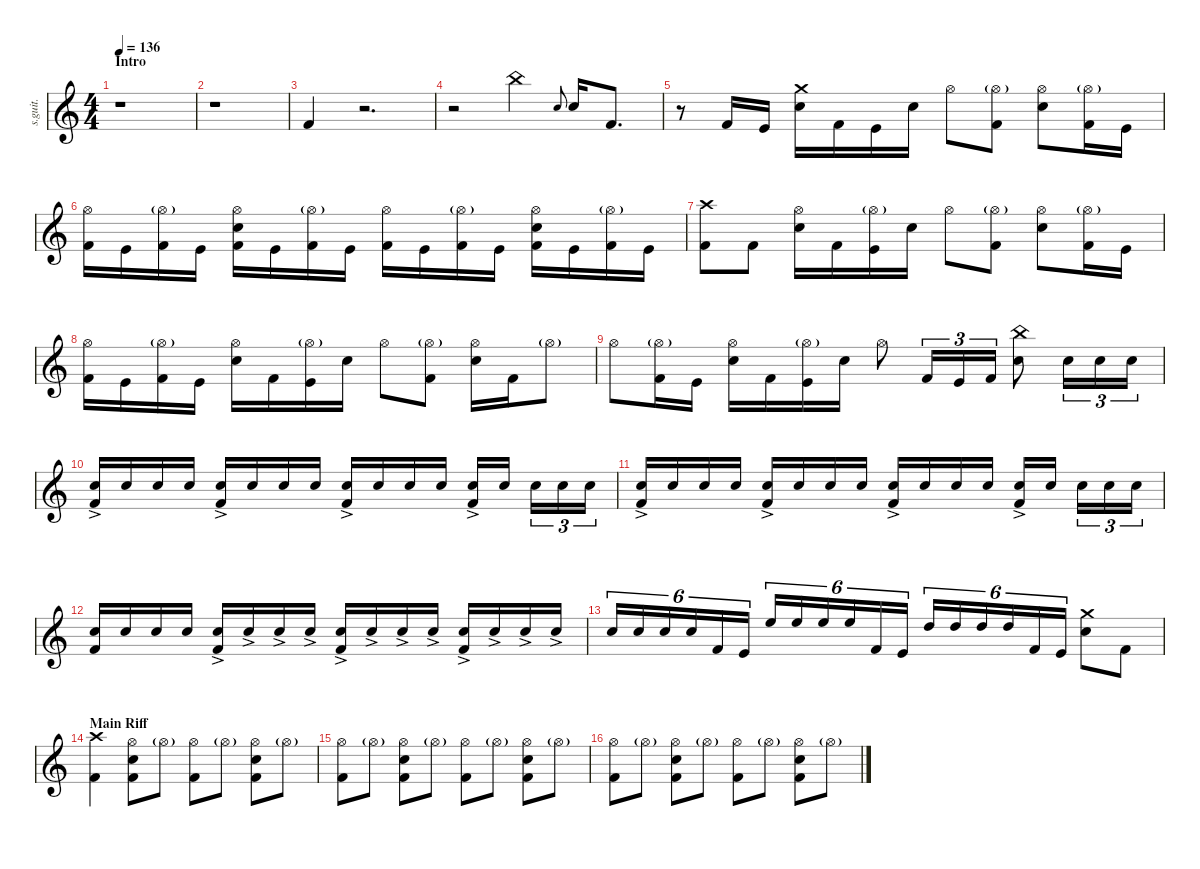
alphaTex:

\defaultSystemsLayout 4
\hideDynamics
\bracketExtendMode nobrackets
\track ("Joey Jordison" "s.guit.") {instrument percussion}
\staff {score}
\articulation defaults
\ts (4 4)
\beaming (8 2 2 2 2)
\section ("" "Intro")
\tempo 136
\clef g2
\ks c
r.1{dy fff} |
r.1 |
"Kick (hit) 2".4{lyrics (0 "") lyrics (1 "") lyrics (2 "") lyrics (3 "") lyrics (4 "")} r.2{d} |
r.2 "China (hit)".4{lyrics (0 "") lyrics (1 "") lyrics (2 "") lyrics (3 "") lyrics (4 "")} "Snare (hit) 2".8{lyrics (0 "") lyrics (1 "") lyrics (2 "") lyrics (3 "") lyrics (4 "") gr onbeat} "Snare (hit) 2".16{lyrics (0 "") lyrics (1 "") lyrics (2 "") lyrics (3 "") lyrics (4 "")} "Kick (hit) 2".8{d lyrics (0 "") lyrics (1 "") lyrics (2 "") lyrics (3 "") lyrics (4 "")} |
r.8 "Kick (hit) 2".16{lyrics (0 "") lyrics (1 "") lyrics (2 "") lyrics (3 "") lyrics (4 "")} "Kick (hit)".16{lyrics (0 "") lyrics (1 "") lyrics (2 "") lyrics (3 "") lyrics (4 "") dy mf} ("Snare (hit) 2" "Crash medium (hit)").16{lyrics (0 "") lyrics (1 "") lyrics (2 "") lyrics (3 "") lyrics (4 "") dy fff} "Kick (hit) 2".16{lyrics (0 "") lyrics (1 "") lyrics (2 "") lyrics (3 "") lyrics (4 "")} "Kick (hit)".16{lyrics (0 "") lyrics (1 "") lyrics (2 "") lyrics (3 "") lyrics (4 "")} "Snare (hit) 2".16{lyrics (0 "") lyrics (1 "") lyrics (2 "") lyrics (3 "") lyrics (4 "")} "Hi-Hat (open)".8{lyrics (0 "") lyrics (1 "") lyrics (2 "") lyrics (3 "") lyrics (4 "")} ("Kick (hit) 2" "Hi-Hat (open)"{g}).8{lyrics (0 "") lyrics (1 "") lyrics (2 "") lyrics (3 "") lyrics (4 "")} ("Snare (hit) 2" "Hi-Hat (open)").8{lyrics (0 "") lyrics (1 "") lyrics (2 "") lyrics (3 "") lyrics (4 "")} ("Kick (hit) 2" "Hi-Hat (open)"{g}).16{lyrics (0 "") lyrics (1 "") lyrics (2 "") lyrics (3 "") lyrics (4 "")} "Kick (hit)".16{lyrics (0 "") lyrics (1 "") lyrics (2 "") lyrics (3 "") lyrics (4 "")} |
("Kick (hit) 2" "Hi-Hat (open)").16{lyrics (0 "") lyrics (1 "") lyrics (2 "") lyrics (3 "") lyrics (4 "")} "Kick (hit)".16{lyrics (0 "") lyrics (1 "") lyrics (2 "") lyrics (3 "") lyrics (4 "")} ("Kick (hit) 2" "Hi-Hat (open)"{g}).16{lyrics (0 "") lyrics (1 "") lyrics (2 "") lyrics (3 "") lyrics (4 "")} "Kick (hit)".16{lyrics (0 "") lyrics (1 "") lyrics (2 "") lyrics (3 "") lyrics (4 "")} ("Kick (hit) 2" "Hi-Hat (open)" "Snare (hit) 2").16{lyrics (0 "") lyrics (1 "") lyrics (2 "") lyrics (3 "") lyrics (4 "")} "Kick (hit)".16{lyrics (0 "") lyrics (1 "") lyrics (2 "") lyrics (3 "") lyrics (4 "")} ("Hi-Hat (open)"{g} "Kick (hit) 2").16{lyrics (0 "") lyrics (1 "") lyrics (2 "") lyrics (3 "") lyrics (4 "")} "Kick (hit)".16{lyrics (0 "") lyrics (1 "") lyrics (2 "") lyrics (3 "") lyrics (4 "")} ("Kick (hit) 2" "Hi-Hat (open)").16{lyrics (0 "") lyrics (1 "") lyrics (2 "") lyrics (3 "") lyrics (4 "")} "Kick (hit)".16{lyrics (0 "") lyrics (1 "") lyrics (2 "") lyrics (3 "") lyrics (4 "")} ("Kick (hit) 2" "Hi-Hat (open)"{g}).16{lyrics (0 "") lyrics (1 "") lyrics (2 "") lyrics (3 "") lyrics (4 "")} "Kick (hit)".16{lyrics (0 "") lyrics (1 "") lyrics (2 "") lyrics (3 "") lyrics (4 "")} ("Kick (hit) 2" "Hi-Hat (open)" "Snare (hit) 2").16{lyrics (0 "") lyrics (1 "") lyrics (2 "") lyrics (3 "") lyrics (4 "")} "Kick (hit)".16{lyrics (0 "") lyrics (1 "") lyrics (2 "") lyrics (3 "") lyrics (4 "")} ("Kick (hit) 2" "Hi-Hat (open)"{g}).16{lyrics (0 "") lyrics (1 "") lyrics (2 "") lyrics (3 "") lyrics (4 "")} "Kick (hit)".16{lyrics (0 "") lyrics (1 "") lyrics (2 "") lyrics (3 "") lyrics (4 "")} |
("Kick (hit) 2" "Crash high (hit)").8{lyrics (0 "") lyrics (1 "") lyrics (2 "") lyrics (3 "") lyrics (4 "")} "Kick (hit) 2".8{lyrics (0 "") lyrics (1 "") lyrics (2 "") lyrics (3 "") lyrics (4 "")} ("Snare (hit) 2" "Hi-Hat (open)").16{lyrics (0 "") lyrics (1 "") lyrics (2 "") lyrics (3 "") lyrics (4 "")} "Kick (hit) 2".16{lyrics (0 "") lyrics (1 "") lyrics (2 "") lyrics (3 "") lyrics (4 "")} ("Hi-Hat (open)"{g} "Kick (hit)").16{lyrics (0 "") lyrics (1 "") lyrics (2 "") lyrics (3 "") lyrics (4 "")} "Snare (hit) 2".16{lyrics (0 "") lyrics (1 "") lyrics (2 "") lyrics (3 "") lyrics (4 "")} "Hi-Hat (open)".8{lyrics (0 "") lyrics (1 "") lyrics (2 "") lyrics (3 "") lyrics (4 "")} ("Kick (hit) 2" "Hi-Hat (open)"{g}).8{lyrics (0 "") lyrics (1 "") lyrics (2 "") lyrics (3 "") lyrics (4 "")} ("Snare (hit) 2" "Hi-Hat (open)").8{lyrics (0 "") lyrics (1 "") lyrics (2 "") lyrics (3 "") lyrics (4 "")} ("Kick (hit) 2" "Hi-Hat (open)"{g}).16{lyrics (0 "") lyrics (1 "") lyrics (2 "") lyrics (3 "") lyrics (4 "")} "Kick (hit)".16{lyrics (0 "") lyrics (1 "") lyrics (2 "") lyrics (3 "") lyrics (4 "")} |
("Kick (hit) 2" "Hi-Hat (open)").16{lyrics (0 "") lyrics (1 "") lyrics (2 "") lyrics (3 "") lyrics (4 "")} "Kick (hit)".16{lyrics (0 "") lyrics (1 "") lyrics (2 "") lyrics (3 "") lyrics (4 "")} ("Kick (hit) 2" "Hi-Hat (open)"{g}).16{lyrics (0 "") lyrics (1 "") lyrics (2 "") lyrics (3 "") lyrics (4 "")} "Kick (hit)".16{lyrics (0 "") lyrics (1 "") lyrics (2 "") lyrics (3 "") lyrics (4 "")} ("Snare (hit) 2" "Hi-Hat (open)").16{lyrics (0 "") lyrics (1 "") lyrics (2 "") lyrics (3 "") lyrics (4 "")} "Kick (hit) 2".16{lyrics (0 "") lyrics (1 "") lyrics (2 "") lyrics (3 "") lyrics (4 "")} ("Hi-Hat (open)"{g} "Kick (hit)").16{lyrics (0 "") lyrics (1 "") lyrics (2 "") lyrics (3 "") lyrics (4 "")} "Snare (hit) 2".16{lyrics (0 "") lyrics (1 "") lyrics (2 "") lyrics (3 "") lyrics (4 "")} "Hi-Hat (open)".8{lyrics (0 "") lyrics (1 "") lyrics (2 "") lyrics (3 "") lyrics (4 "")} ("Kick (hit) 2" "Hi-Hat (open)"{g}).8{lyrics (0 "") lyrics (1 "") lyrics (2 "") lyrics (3 "") lyrics (4 "")} ("Snare (hit) 2" "Hi-Hat (open)").16{lyrics (0 "") lyrics (1 "") lyrics (2 "") lyrics (3 "") lyrics (4 "")} "Kick (hit) 2".16{lyrics (0 "") lyrics (1 "") lyrics (2 "") lyrics (3 "") lyrics (4 "")} "Hi-Hat (open)"{g}.8{lyrics (0 "") lyrics (1 "") lyrics (2 "") lyrics (3 "") lyrics (4 "")} |
"Hi-Hat (open)".8{lyrics (0 "") lyrics (1 "") lyrics (2 "") lyrics (3 "") lyrics (4 "")} ("Kick (hit) 2" "Hi-Hat (open)"{g}).16{lyrics (0 "") lyrics (1 "") lyrics (2 "") lyrics (3 "") lyrics (4 "")} "Kick (hit)".16{lyrics (0 "") lyrics (1 "") lyrics (2 "") lyrics (3 "") lyrics (4 "")} ("Snare (hit) 2" "Hi-Hat (open)").16{lyrics (0 "") lyrics (1 "") lyrics (2 "") lyrics (3 "") lyrics (4 "")} "Kick (hit) 2".16{lyrics (0 "") lyrics (1 "") lyrics (2 "") lyrics (3 "") lyrics (4 "")} ("Hi-Hat (open)"{g} "Kick (hit)").16{lyrics (0 "") lyrics (1 "") lyrics (2 "") lyrics (3 "") lyrics (4 "")} "Snare (hit) 2".16{lyrics (0 "") lyrics (1 "") lyrics (2 "") lyrics (3 "") lyrics (4 "")} "Hi-Hat (open)".8{lyrics (0 "") lyrics (1 "") lyrics (2 "") lyrics (3 "") lyrics (4 "")} "Kick (hit) 2".16{tu (3 2) lyrics (0 "") lyrics (1 "") lyrics (2 "") lyrics (3 "") lyrics (4 "")} "Kick (hit)".16{tu (3 2) lyrics (0 "") lyrics (1 "") lyrics (2 "") lyrics (3 "") lyrics (4 "")} "Kick (hit) 2".16{tu (3 2) lyrics (0 "") lyrics (1 "") lyrics (2 "") lyrics (3 "") lyrics (4 "")} ("Snare (hit) 2" "China (hit)").8{lyrics (0 "") lyrics (1 "") lyrics (2 "") lyrics (3 "") lyrics (4 "")} "Snare (hit) 2".16{tu (3 2) lyrics (0 "") lyrics (1 "") lyrics (2 "") lyrics (3 "") lyrics (4 "") dy f} "Snare (hit) 2".16{tu (3 2) lyrics (0 "") lyrics (1 "") lyrics (2 "") lyrics (3 "") lyrics (4 "")} "Snare (hit) 2".16{tu (3 2) lyrics (0 "") lyrics (1 "") lyrics (2 "") lyrics (3 "") lyrics (4 "")} |
("Snare (hit) 2"{ac} "Kick (hit) 2").16{lyrics (0 "") lyrics (1 "") lyrics (2 "") lyrics (3 "") lyrics (4 "")} "Snare (hit) 2".16{lyrics (0 "") lyrics (1 "") lyrics (2 "") lyrics (3 "") lyrics (4 "")} "Snare (hit) 2".16{lyrics (0 "") lyrics (1 "") lyrics (2 "") lyrics (3 "") lyrics (4 "")} "Snare (hit) 2".16{lyrics (0 "") lyrics (1 "") lyrics (2 "") lyrics (3 "") lyrics (4 "")} ("Snare (hit) 2"{ac} "Kick (hit) 2").16{lyrics (0 "") lyrics (1 "") lyrics (2 "") lyrics (3 "") lyrics (4 "")} "Snare (hit) 2".16{lyrics (0 "") lyrics (1 "") lyrics (2 "") lyrics (3 "") lyrics (4 "")} "Snare (hit) 2".16{lyrics (0 "") lyrics (1 "") lyrics (2 "") lyrics (3 "") lyrics (4 "")} "Snare (hit) 2".16{lyrics (0 "") lyrics (1 "") lyrics (2 "") lyrics (3 "") lyrics (4 "")} ("Snare (hit) 2"{ac} "Kick (hit) 2").16{lyrics (0 "") lyrics (1 "") lyrics (2 "") lyrics (3 "") lyrics (4 "")} "Snare (hit) 2".16{lyrics (0 "") lyrics (1 "") lyrics (2 "") lyrics (3 "") lyrics (4 "")} "Snare (hit) 2".16{lyrics (0 "") lyrics (1 "") lyrics (2 "") lyrics (3 "") lyrics (4 "")} "Snare (hit) 2".16{lyrics (0 "") lyrics (1 "") lyrics (2 "") lyrics (3 "") lyrics (4 "")} ("Snare (hit) 2"{ac} "Kick (hit) 2").16{lyrics (0 "") lyrics (1 "") lyrics (2 "") lyrics (3 "") lyrics (4 "")} "Snare (hit) 2".16{lyrics (0 "") lyrics (1 "") lyrics (2 "") lyrics (3 "") lyrics (4 "")} "Snare (hit) 2".16{tu (3 2) lyrics (0 "") lyrics (1 "") lyrics (2 "") lyrics (3 "") lyrics (4 "")} "Snare (hit) 2".16{tu (3 2) lyrics (0 "") lyrics (1 "") lyrics (2 "") lyrics (3 "") lyrics (4 "")} "Snare (hit) 2".16{tu (3 2) lyrics (0 "") lyrics (1 "") lyrics (2 "") lyrics (3 "") lyrics (4 "")} |
("Snare (hit) 2"{ac} "Kick (hit) 2").16{lyrics (0 "") lyrics (1 "") lyrics (2 "") lyrics (3 "") lyrics (4 "")} "Snare (hit) 2".16{lyrics (0 "") lyrics (1 "") lyrics (2 "") lyrics (3 "") lyrics (4 "")} "Snare (hit) 2".16{lyrics (0 "") lyrics (1 "") lyrics (2 "") lyrics (3 "") lyrics (4 "")} "Snare (hit) 2".16{lyrics (0 "") lyrics (1 "") lyrics (2 "") lyrics (3 "") lyrics (4 "")} ("Snare (hit) 2"{ac} "Kick (hit) 2").16{lyrics (0 "") lyrics (1 "") lyrics (2 "") lyrics (3 "") lyrics (4 "")} "Snare (hit) 2".16{lyrics (0 "") lyrics (1 "") lyrics (2 "") lyrics (3 "") lyrics (4 "")} "Snare (hit) 2".16{lyrics (0 "") lyrics (1 "") lyrics (2 "") lyrics (3 "") lyrics (4 "")} "Snare (hit) 2".16{lyrics (0 "") lyrics (1 "") lyrics (2 "") lyrics (3 "") lyrics (4 "")} ("Snare (hit) 2"{ac} "Kick (hit) 2").16{lyrics (0 "") lyrics (1 "") lyrics (2 "") lyrics (3 "") lyrics (4 "")} "Snare (hit) 2".16{lyrics (0 "") lyrics (1 "") lyrics (2 "") lyrics (3 "") lyrics (4 "")} "Snare (hit) 2".16{lyrics (0 "") lyrics (1 "") lyrics (2 "") lyrics (3 "") lyrics (4 "")} "Snare (hit) 2".16{lyrics (0 "") lyrics (1 "") lyrics (2 "") lyrics (3 "") lyrics (4 "")} ("Snare (hit) 2"{ac} "Kick (hit) 2").16{lyrics (0 "") lyrics (1 "") lyrics (2 "") lyrics (3 "") lyrics (4 "")} "Snare (hit) 2".16{lyrics (0 "") lyrics (1 "") lyrics (2 "") lyrics (3 "") lyrics (4 "")} "Snare (hit) 2".16{tu (3 2) lyrics (0 "") lyrics (1 "") lyrics (2 "") lyrics (3 "") lyrics (4 "")} "Snare (hit) 2".16{tu (3 2) lyrics (0 "") lyrics (1 "") lyrics (2 "") lyrics (3 "") lyrics (4 "")} "Snare (hit) 2".16{tu (3 2) lyrics (0 "") lyrics (1 "") lyrics (2 "") lyrics (3 "") lyrics (4 "")} |
("Snare (hit) 2" "Kick (hit) 2").16{lyrics (0 "") lyrics (1 "") lyrics (2 "") lyrics (3 "") lyrics (4 "")} "Snare (hit) 2".16{lyrics (0 "") lyrics (1 "") lyrics (2 "") lyrics (3 "") lyrics (4 "")} "Snare (hit) 2".16{lyrics (0 "") lyrics (1 "") lyrics (2 "") lyrics (3 "") lyrics (4 "")} "Snare (hit) 2".16{lyrics (0 "") lyrics (1 "") lyrics (2 "") lyrics (3 "") lyrics (4 "")} ("Snare (hit) 2"{ac} "Kick (hit) 2").16{lyrics (0 "") lyrics (1 "") lyrics (2 "") lyrics (3 "") lyrics (4 "") dy fff} "Snare (hit) 2"{ac}.16{lyrics (0 "") lyrics (1 "") lyrics (2 "") lyrics (3 "") lyrics (4 "")} "Snare (hit) 2"{ac}.16{lyrics (0 "") lyrics (1 "") lyrics (2 "") lyrics (3 "") lyrics (4 "")} "Snare (hit) 2"{ac}.16{lyrics (0 "") lyrics (1 "") lyrics (2 "") lyrics (3 "") lyrics (4 "")} ("Snare (hit) 2"{ac} "Kick (hit) 2").16{lyrics (0 "") lyrics (1 "") lyrics (2 "") lyrics (3 "") lyrics (4 "")} "Snare (hit) 2"{ac}.16{lyrics (0 "") lyrics (1 "") lyrics (2 "") lyrics (3 "") lyrics (4 "")} "Snare (hit) 2"{ac}.16{lyrics (0 "") lyrics (1 "") lyrics (2 "") lyrics (3 "") lyrics (4 "")} "Snare (hit) 2"{ac}.16{lyrics (0 "") lyrics (1 "") lyrics (2 "") lyrics (3 "") lyrics (4 "")} ("Snare (hit) 2"{ac} "Kick (hit) 2").16{lyrics (0 "") lyrics (1 "") lyrics (2 "") lyrics (3 "") lyrics (4 "")} "Snare (hit) 2"{ac}.16{lyrics (0 "") lyrics (1 "") lyrics (2 "") lyrics (3 "") lyrics (4 "")} "Snare (hit) 2"{ac}.16{lyrics (0 "") lyrics (1 "") lyrics (2 "") lyrics (3 "") lyrics (4 "")} "Snare (hit) 2"{ac}.16{lyrics (0 "") lyrics (1 "") lyrics (2 "") lyrics (3 "") lyrics (4 "")} |
"Snare (hit) 2".16{tu (6 4) lyrics (0 "") lyrics (1 "") lyrics (2 "") lyrics (3 "") lyrics (4 "")} "Snare (hit) 2".16{tu (6 4) lyrics (0 "") lyrics (1 "") lyrics (2 "") lyrics (3 "") lyrics (4 "")} "Snare (hit) 2".16{tu (6 4) lyrics (0 "") lyrics (1 "") lyrics (2 "") lyrics (3 "") lyrics (4 "")} "Snare (hit) 2".16{tu (6 4) lyrics (0 "") lyrics (1 "") lyrics (2 "") lyrics (3 "") lyrics (4 "")} "Kick (hit) 2".16{tu (6 4) lyrics (0 "") lyrics (1 "") lyrics (2 "") lyrics (3 "") lyrics (4 "")} "Kick (hit)".16{tu (6 4) lyrics (0 "") lyrics (1 "") lyrics (2 "") lyrics (3 "") lyrics (4 "")} "High Floor Tom (hit)".16{tu (6 4) lyrics (0 "") lyrics (1 "") lyrics (2 "") lyrics (3 "") lyrics (4 "")} "High Floor Tom (hit)".16{tu (6 4) lyrics (0 "") lyrics (1 "") lyrics (2 "") lyrics (3 "") lyrics (4 "")} "High Floor Tom (hit)".16{tu (6 4) lyrics (0 "") lyrics (1 "") lyrics (2 "") lyrics (3 "") lyrics (4 "")} "High Floor Tom (hit)".16{tu (6 4) lyrics (0 "") lyrics (1 "") lyrics (2 "") lyrics (3 "") lyrics (4 "")} "Kick (hit) 2".16{tu (6 4) lyrics (0 "") lyrics (1 "") lyrics (2 "") lyrics (3 "") lyrics (4 "")} "Kick (hit)".16{tu (6 4) lyrics (0 "") lyrics (1 "") lyrics (2 "") lyrics (3 "") lyrics (4 "")} "High Tom (hit)".16{tu (6 4) lyrics (0 "") lyrics (1 "") lyrics (2 "") lyrics (3 "") lyrics (4 "")} "High Tom (hit)".16{tu (6 4) lyrics (0 "") lyrics (1 "") lyrics (2 "") lyrics (3 "") lyrics (4 "")} "High Tom (hit)".16{tu (6 4) lyrics (0 "") lyrics (1 "") lyrics (2 "") lyrics (3 "") lyrics (4 "")} "High Tom (hit)".16{tu (6 4) lyrics (0 "") lyrics (1 "") lyrics (2 "") lyrics (3 "") lyrics (4 "")} "Kick (hit) 2".16{tu (6 4) lyrics (0 "") lyrics (1 "") lyrics (2 "") lyrics (3 "") lyrics (4 "")} "Kick (hit)".16{tu (6 4) lyrics (0 "") lyrics (1 "") lyrics (2 "") lyrics (3 "") lyrics (4 "")} ("Snare (hit) 2" "Crash medium (hit)").8{lyrics (0 "") lyrics (1 "") lyrics (2 "") lyrics (3 "") lyrics (4 "")} "Kick (hit) 2".8{lyrics (0 "") lyrics (1 "") lyrics (2 "") lyrics (3 "") lyrics (4 "")} |
\section ("" "Main Riff")
("Crash high (hit)" "Kick (hit) 2").4{lyrics (0 "") lyrics (1 "") lyrics (2 "") lyrics (3 "") lyrics (4 "")} ("Hi-Hat (open)" "Kick (hit) 2" "Snare (hit) 2").8{lyrics (0 "") lyrics (1 "") lyrics (2 "") lyrics (3 "") lyrics (4 "")} "Hi-Hat (open)"{g}.8{lyrics (0 "") lyrics (1 "") lyrics (2 "") lyrics (3 "") lyrics (4 "")} ("Hi-Hat (open)" "Kick (hit) 2").8{lyrics (0 "") lyrics (1 "") lyrics (2 "") lyrics (3 "") lyrics (4 "")} "Hi-Hat (open)"{g}.8{lyrics (0 "") lyrics (1 "") lyrics (2 "") lyrics (3 "") lyrics (4 "")} ("Hi-Hat (open)" "Kick (hit) 2" "Snare (hit) 2").8{lyrics (0 "") lyrics (1 "") lyrics (2 "") lyrics (3 "") lyrics (4 "")} "Hi-Hat (open)"{g}.8{lyrics (0 "") lyrics (1 "") lyrics (2 "") lyrics (3 "") lyrics (4 "")} |
("Hi-Hat (open)" "Kick (hit) 2").8{lyrics (0 "") lyrics (1 "") lyrics (2 "") lyrics (3 "") lyrics (4 "")} "Hi-Hat (open)"{g}.8{lyrics (0 "") lyrics (1 "") lyrics (2 "") lyrics (3 "") lyrics (4 "")} ("Hi-Hat (open)" "Kick (hit) 2" "Snare (hit) 2").8{lyrics (0 "") lyrics (1 "") lyrics (2 "") lyrics (3 "") lyrics (4 "")} "Hi-Hat (open)"{g}.8{lyrics (0 "") lyrics (1 "") lyrics (2 "") lyrics (3 "") lyrics (4 "")} ("Hi-Hat (open)" "Kick (hit) 2").8{lyrics (0 "") lyrics (1 "") lyrics (2 "") lyrics (3 "") lyrics (4 "")} "Hi-Hat (open)"{g}.8{lyrics (0 "") lyrics (1 "") lyrics (2 "") lyrics (3 "") lyrics (4 "")} ("Hi-Hat (open)" "Kick (hit) 2" "Snare (hit) 2").8{lyrics (0 "") lyrics (1 "") lyrics (2 "") lyrics (3 "") lyrics (4 "")} "Hi-Hat (open)"{g}.8{lyrics (0 "") lyrics (1 "") lyrics (2 "") lyrics (3 "") lyrics (4 "")} |
("Hi-Hat (open)" "Kick (hit) 2").8{lyrics (0 "") lyrics (1 "") lyrics (2 "") lyrics (3 "") lyrics (4 "")} "Hi-Hat (open)"{g}.8{lyrics (0 "") lyrics (1 "") lyrics (2 "") lyrics (3 "") lyrics (4 "")} ("Hi-Hat (open)" "Kick (hit) 2" "Snare (hit) 2").8{lyrics (0 "") lyrics (1 "") lyrics (2 "") lyrics (3 "") lyrics (4 "")} "Hi-Hat (open)"{g}.8{lyrics (0 "") lyrics (1 "") lyrics (2 "") lyrics (3 "") lyrics (4 "")} ("Hi-Hat (open)" "Kick (hit) 2").8{lyrics (0 "") lyrics (1 "") lyrics (2 "") lyrics (3 "") lyrics (4 "")} "Hi-Hat (open)"{g}.8{lyrics (0 "") lyrics (1 "") lyrics (2 "") lyrics (3 "") lyrics (4 "")} ("Hi-Hat (open)" "Kick (hit) 2" "Snare (hit) 2").8{lyrics (0 "") lyrics (1 "") lyrics (2 "") lyrics (3 "") lyrics (4 "")} "Hi-Hat (open)"{g}.8{lyrics (0 "") lyrics (1 "") lyrics (2 "") lyrics (3 "") lyrics (4 "")}
